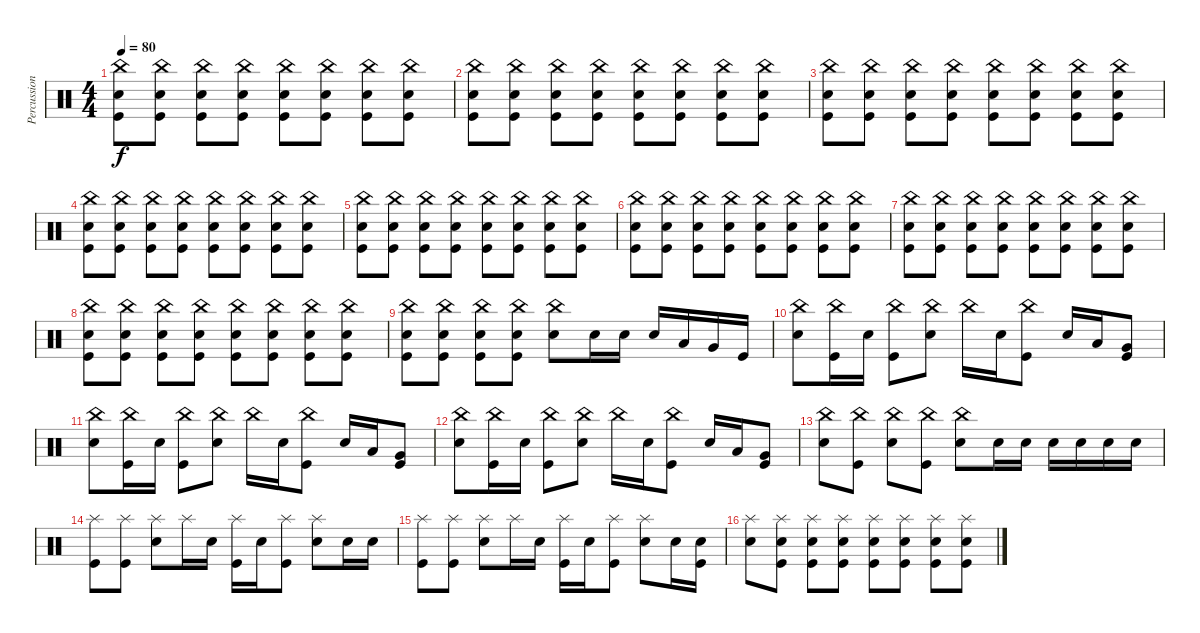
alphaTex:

\track ("Percussions" "Percussion") {instrument percussion}
\staff {score}
\articulation defaults
\ts (4 4)
\tempo 80
\clef neutral
\ks c
("China (hit)" "Snare (hit) 2" "Kick (hit)").8{dy f} ("China (hit)" "Snare (hit) 2" "Kick (hit)").8 ("China (hit)" "Snare (hit) 2" "Kick (hit)").8 ("China (hit)" "Snare (hit) 2" "Kick (hit)").8 ("China (hit)" "Snare (hit) 2" "Kick (hit)").8 ("China (hit)" "Snare (hit) 2" "Kick (hit)").8 ("China (hit)" "Snare (hit) 2" "Kick (hit)").8 ("China (hit)" "Snare (hit) 2" "Kick (hit)").8 |
("China (hit)" "Snare (hit) 2" "Kick (hit)").8 ("China (hit)" "Snare (hit) 2" "Kick (hit)").8 ("China (hit)" "Snare (hit) 2" "Kick (hit)").8 ("China (hit)" "Snare (hit) 2" "Kick (hit)").8 ("China (hit)" "Snare (hit) 2" "Kick (hit)").8 ("China (hit)" "Snare (hit) 2" "Kick (hit)").8 ("China (hit)" "Snare (hit) 2" "Kick (hit)").8 ("China (hit)" "Snare (hit) 2" "Kick (hit)").8 |
("China (hit)" "Snare (hit) 2" "Kick (hit)").8 ("China (hit)" "Snare (hit) 2" "Kick (hit)").8 ("China (hit)" "Snare (hit) 2" "Kick (hit)").8 ("China (hit)" "Snare (hit) 2" "Kick (hit)").8 ("China (hit)" "Snare (hit) 2" "Kick (hit)").8 ("China (hit)" "Snare (hit) 2" "Kick (hit)").8 ("China (hit)" "Snare (hit) 2" "Kick (hit)").8 ("China (hit)" "Snare (hit) 2" "Kick (hit)").8 |
("China (hit)" "Snare (hit) 2" "Kick (hit)").8 ("China (hit)" "Snare (hit) 2" "Kick (hit)").8 ("China (hit)" "Snare (hit) 2" "Kick (hit)").8 ("China (hit)" "Snare (hit) 2" "Kick (hit)").8 ("China (hit)" "Snare (hit) 2" "Kick (hit)").8 ("China (hit)" "Snare (hit) 2" "Kick (hit)").8 ("China (hit)" "Snare (hit) 2" "Kick (hit)").8 ("China (hit)" "Snare (hit) 2" "Kick (hit)").8 |
("China (hit)" "Snare (hit) 2" "Kick (hit)").8 ("China (hit)" "Snare (hit) 2" "Kick (hit)").8 ("China (hit)" "Snare (hit) 2" "Kick (hit)").8 ("China (hit)" "Snare (hit) 2" "Kick (hit)").8 ("China (hit)" "Snare (hit) 2" "Kick (hit)").8 ("China (hit)" "Snare (hit) 2" "Kick (hit)").8 ("China (hit)" "Snare (hit) 2" "Kick (hit)").8 ("China (hit)" "Snare (hit) 2" "Kick (hit)").8 |
("China (hit)" "Snare (hit) 2" "Kick (hit)").8 ("China (hit)" "Snare (hit) 2" "Kick (hit)").8 ("China (hit)" "Snare (hit) 2" "Kick (hit)").8 ("China (hit)" "Snare (hit) 2" "Kick (hit)").8 ("China (hit)" "Snare (hit) 2" "Kick (hit)").8 ("China (hit)" "Snare (hit) 2" "Kick (hit)").8 ("China (hit)" "Snare (hit) 2" "Kick (hit)").8 ("China (hit)" "Snare (hit) 2" "Kick (hit)").8 |
("China (hit)" "Snare (hit) 2" "Kick (hit)").8 ("China (hit)" "Snare (hit) 2" "Kick (hit)").8 ("China (hit)" "Snare (hit) 2" "Kick (hit)").8 ("China (hit)" "Snare (hit) 2" "Kick (hit)").8 ("China (hit)" "Snare (hit) 2" "Kick (hit)").8 ("China (hit)" "Snare (hit) 2" "Kick (hit)").8 ("China (hit)" "Snare (hit) 2" "Kick (hit)").8 ("China (hit)" "Snare (hit) 2" "Kick (hit)").8 |
("China (hit)" "Snare (hit) 2" "Kick (hit)").8 ("China (hit)" "Snare (hit) 2" "Kick (hit)").8 ("China (hit)" "Snare (hit) 2" "Kick (hit)").8 ("China (hit)" "Snare (hit) 2" "Kick (hit)").8 ("China (hit)" "Snare (hit) 2" "Kick (hit)").8 ("China (hit)" "Snare (hit) 2" "Kick (hit)").8 ("China (hit)" "Snare (hit) 2" "Kick (hit)").8 ("China (hit)" "Snare (hit) 2" "Kick (hit)").8 |
("China (hit)" "Snare (hit) 2" "Kick (hit)").8 ("China (hit)" "Snare (hit) 2" "Kick (hit)").8 ("China (hit)" "Snare (hit) 2" "Kick (hit)").8 ("China (hit)" "Snare (hit) 2" "Kick (hit)").8 ("China (hit)" "Snare (hit) 2").8 "Snare (hit) 2".16 "Snare (hit) 2".16 "Snare (hit) 2".16 "Low Tom (hit)".16 "Very Low Tom (hit)".16 "Kick (hit)".16 |
("China (hit)" "Snare (hit) 2").8 ("China (hit)" "Kick (hit)").16 "Snare (hit) 2".16 ("China (hit)" "Kick (hit)").8 ("China (hit)" "Snare (hit) 2").8 "China (hit)".16 "Snare (hit) 2".16 ("China (hit)" "Kick (hit)").8 "Snare (hit) 2".16 "Low Tom (hit)".16 ("Very Low Tom (hit)" "Kick (hit)").8 |
("China (hit)" "Snare (hit) 2").8 ("China (hit)" "Kick (hit)").16 "Snare (hit) 2".16 ("China (hit)" "Kick (hit)").8 ("China (hit)" "Snare (hit) 2").8 "China (hit)".16 "Snare (hit) 2".16 ("China (hit)" "Kick (hit)").8 "Snare (hit) 2".16 "Low Tom (hit)".16 ("Very Low Tom (hit)" "Kick (hit)").8 |
("China (hit)" "Snare (hit) 2").8 ("China (hit)" "Kick (hit)").16 "Snare (hit) 2".16 ("China (hit)" "Kick (hit)").8 ("China (hit)" "Snare (hit) 2").8 "China (hit)".16 "Snare (hit) 2".16 ("China (hit)" "Kick (hit)").8 "Snare (hit) 2".16 "Low Tom (hit)".16 ("Very Low Tom (hit)" "Kick (hit)").8 |
("China (hit)" "Snare (hit) 2").8 ("China (hit)" "Kick (hit)").8 ("China (hit)" "Snare (hit) 2").8 ("China (hit)" "Kick (hit)").8 ("China (hit)" "Snare (hit) 2").8 "Snare (hit) 2".16 "Snare (hit) 2".16 "Snare (hit) 2".16 "Snare (hit) 2".16 "Snare (hit) 2".16 "Snare (hit) 2".16 |
("Splash (hit)" "Kick (hit)").8 ("Splash (hit)" "Kick (hit)").8 ("Splash (hit)" "Snare (hit) 2").8 "Splash (hit)".16 "Snare (hit) 2".16 ("Splash (hit)" "Kick (hit)").16 "Snare (hit) 2".16 ("Splash (hit)" "Kick (hit)").8 ("Splash (hit)" "Snare (hit) 2").8 "Snare (hit) 2".16 "Snare (hit) 2".16 |
("Splash (hit)" "Kick (hit)").8 ("Splash (hit)" "Kick (hit)").8 ("Splash (hit)" "Snare (hit) 2").8 "Splash (hit)".16 "Snare (hit) 2".16 ("Splash (hit)" "Kick (hit)").16 "Snare (hit) 2".16 ("Splash (hit)" "Kick (hit)").8 ("Splash (hit)" "Snare (hit) 2").8 "Snare (hit) 2".16 ("Snare (hit) 2" "Kick (hit)").16 |
("Splash (hit)" "Snare (hit) 2").8 ("Splash (hit)" "Snare (hit) 2" "Kick (hit)").8 ("Splash (hit)" "Snare (hit) 2" "Kick (hit)").8 ("Splash (hit)" "Snare (hit) 2" "Kick (hit)").8 ("Splash (hit)" "Snare (hit) 2" "Kick (hit)").8 ("Splash (hit)" "Snare (hit) 2" "Kick (hit)").8 ("Splash (hit)" "Snare (hit) 2" "Kick (hit)").8 ("Splash (hit)" "Snare (hit) 2" "Kick (hit)").8
